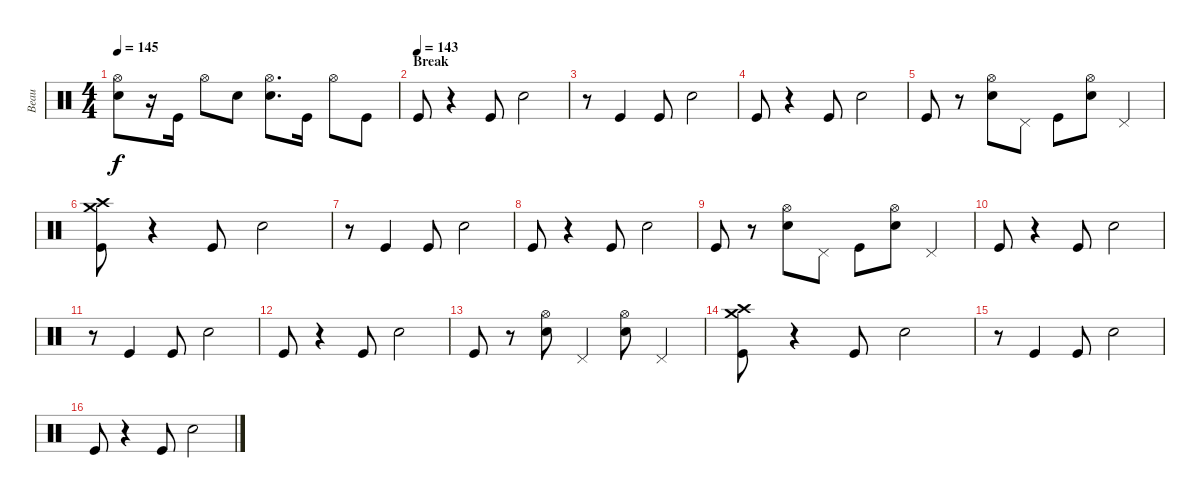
\track ("Beau" "Beau") {instrument percussion}
\staff {score}
\articulation defaults
\ts (4 4)
\tempo 145
\clef neutral
\ks c
("Snare (hit) 2" "Hi-Hat (open)").8{dy f} r.16 "Kick (hit)".16 "Hi-Hat (open)".8 "Snare (hit) 2".8 ("Snare (hit) 2" "Hi-Hat (open)").8{d} "Kick (hit)".16 "Hi-Hat (open)".8 "Kick (hit)".8 |
\section ("" "Break")
\tempo (143)
"Kick (hit)".8 r.4 "Kick (hit)".8 "Snare (hit) 2".2 |
r.8 "Kick (hit)".4 "Kick (hit)".8 "Snare (hit) 2".2 |
"Kick (hit)".8 r.4 "Kick (hit)".8 "Snare (hit) 2".2 |
"Kick (hit)".8 r.8 ("Snare (hit) 2" "Hi-Hat (open)").8 "Pedal Hi-Hat (hit)".8 "Kick (hit)".8 ("Snare (hit) 2" "Hi-Hat (open)").8 "Pedal Hi-Hat (hit)".4 |
("Kick (hit)" "Crash medium (hit)" "Crash high (hit)").8 r.4 "Kick (hit)".8 "Snare (hit) 2".2 |
r.8 "Kick (hit)".4 "Kick (hit)".8 "Snare (hit) 2".2 |
"Kick (hit)".8 r.4 "Kick (hit)".8 "Snare (hit) 2".2 |
"Kick (hit)".8 r.8 ("Snare (hit) 2" "Hi-Hat (open)").8 "Pedal Hi-Hat (hit)".8 "Kick (hit)".8 ("Snare (hit) 2" "Hi-Hat (open)").8 "Pedal Hi-Hat (hit)".4 |
"Kick (hit)".8 r.4 "Kick (hit)".8 "Snare (hit) 2".2 |
r.8 "Kick (hit)".4 "Kick (hit)".8 "Snare (hit) 2".2 |
"Kick (hit)".8 r.4 "Kick (hit)".8 "Snare (hit) 2".2 |
"Kick (hit)".8 r.8 ("Snare (hit) 2" "Hi-Hat (open)").8 "Pedal Hi-Hat (hit)".4 ("Snare (hit) 2" "Hi-Hat (open)").8 "Pedal Hi-Hat (hit)".4 |
("Kick (hit)" "Crash medium (hit)" "Crash high (hit)").8 r.4 "Kick (hit)".8 "Snare (hit) 2".2 |
r.8 "Kick (hit)".4 "Kick (hit)".8 "Snare (hit) 2".2 |
"Kick (hit)".8 r.4 "Kick (hit)".8 "Snare (hit) 2".2
